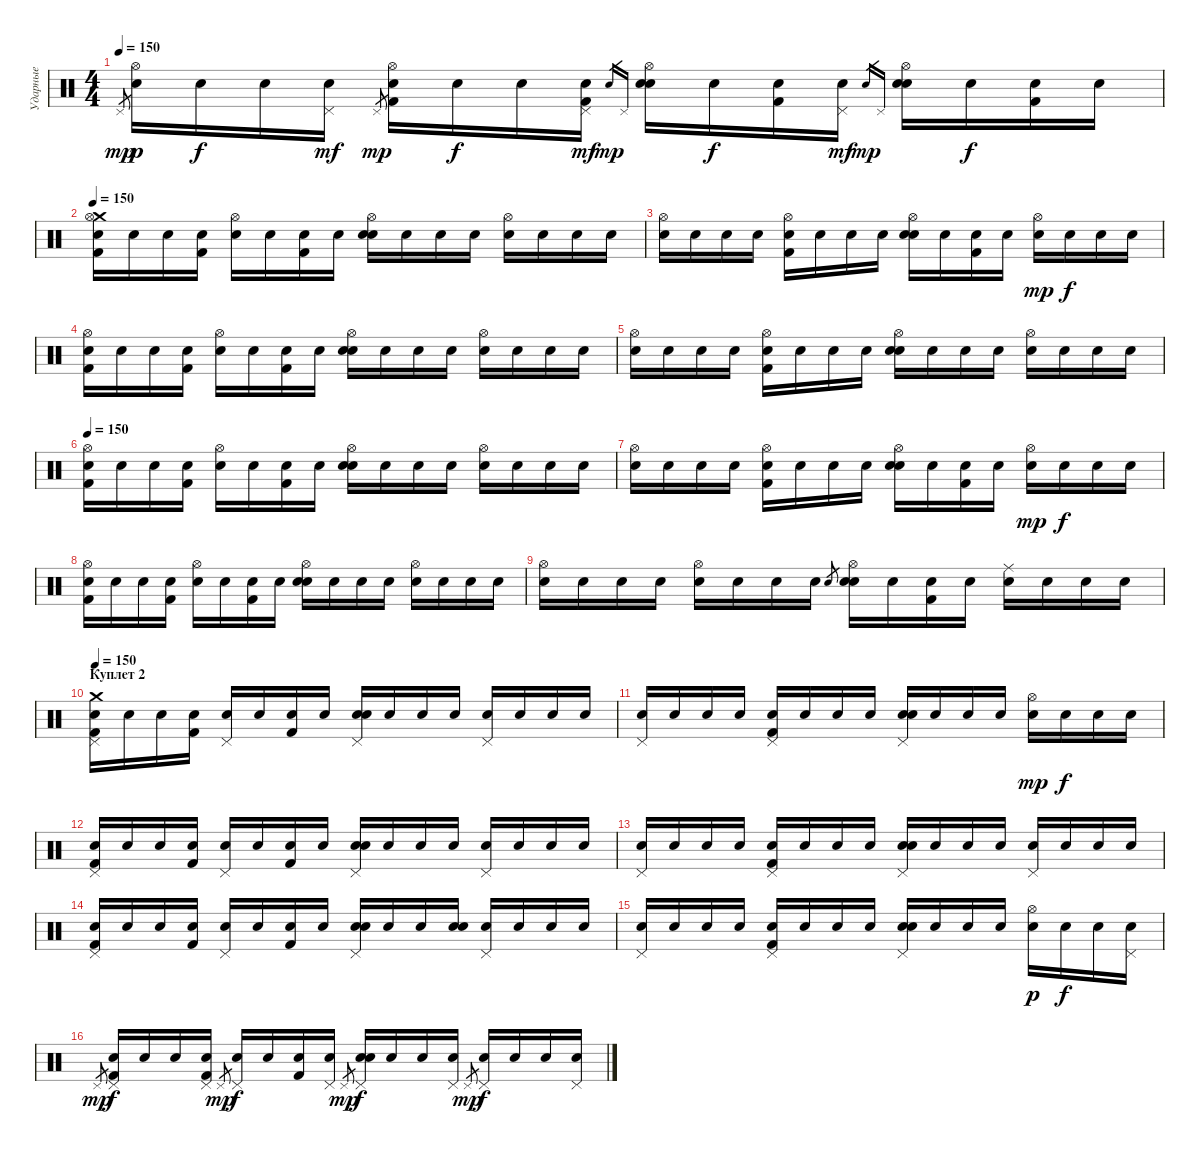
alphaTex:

\track ("Ударные" "Ударные") {instrument percussion}
\staff {score}
\articulation defaults
\ts (4 4)
\tempo 150
\clef neutral
\ks c "Pedal Hi-Hat (hit)".8{gr dy mp}
("Hi-Hat (open)" "Snare (hit)"{x}).16{dy p} "Snare (hit)"{x}.16{dy f} "Snare (hit)"{x}.16 ("Pedal Hi-Hat (hit)" "Snare (hit)"{x}).16{dy mf} "Pedal Hi-Hat (hit)".8{gr dy mp} ("Kick (hit) 2" "Hi-Hat (open)" "Snare (hit)"{x}).16 "Snare (hit)"{x}.16{dy f} "Snare (hit)"{x}.16 ("Kick (hit) 2" "Pedal Hi-Hat (hit)" "Snare (hit)"{x}).16{dy mf} "Snare (hit) 2".16{gr dy mp} "Pedal Hi-Hat (hit)".16{gr} ("Snare (hit) 2" "Hi-Hat (open)" "Snare (hit)"{x}).16 "Snare (hit)"{x}.16{dy f} ("Kick (hit) 2" "Snare (hit)"{x}).16 ("Pedal Hi-Hat (hit)" "Snare (hit)"{x}).16{dy mf} "Snare (hit) 2".16{gr dy mp} "Pedal Hi-Hat (hit)".16{gr} ("Snare (hit) 2" "Hi-Hat (open)" "Snare (hit)"{x}).16 "Snare (hit)"{x}.16{dy f} ("Kick (hit) 2" "Snare (hit)"{x}).16 "Snare (hit)"{x}.16 |
\tempo 150
("Crash medium (hit)" "Kick (hit) 2" "Hi-Hat (open)" "Snare (hit)"{x}).16 "Snare (hit)"{x}.16 "Snare (hit)"{x}.16 ("Kick (hit) 2" "Snare (hit)"{x}).16 ("Hi-Hat (open)" "Snare (hit)"{x}).16 "Snare (hit)"{x}.16 ("Kick (hit) 2" "Snare (hit)"{x}).16 "Snare (hit)"{x}.16 ("Snare (hit) 2" "Hi-Hat (open)" "Snare (hit)"{x}).16 "Snare (hit)"{x}.16 "Snare (hit)"{x}.16 "Snare (hit)"{x}.16 ("Hi-Hat (open)" "Snare (hit)"{x}).16 "Snare (hit)"{x}.16 "Snare (hit)"{x}.16 "Snare (hit)"{x}.16 |
("Hi-Hat (open)" "Snare (hit)"{x}).16 "Snare (hit)"{x}.16 "Snare (hit)"{x}.16 "Snare (hit)"{x}.16 ("Kick (hit) 2" "Hi-Hat (open)" "Snare (hit)"{x}).16 "Snare (hit)"{x}.16 "Snare (hit)"{x}.16 "Snare (hit)"{x}.16 ("Snare (hit) 2" "Hi-Hat (open)" "Snare (hit)"{x}).16 "Snare (hit)"{x}.16 ("Kick (hit) 2" "Snare (hit)"{x}).16 "Snare (hit)"{x}.16 ("Hi-Hat (open)" "Snare (hit)"{x}).16{dy mp} "Snare (hit)"{x}.16{dy f} "Snare (hit)"{x}.16 "Snare (hit)"{x}.16 |
("Kick (hit) 2" "Hi-Hat (open)" "Snare (hit)"{x}).16 "Snare (hit)"{x}.16 "Snare (hit)"{x}.16 ("Kick (hit) 2" "Snare (hit)"{x}).16 ("Hi-Hat (open)" "Snare (hit)"{x}).16 "Snare (hit)"{x}.16 ("Kick (hit) 2" "Snare (hit)"{x}).16 "Snare (hit)"{x}.16 ("Snare (hit) 2" "Hi-Hat (open)" "Snare (hit)"{x}).16 "Snare (hit)"{x}.16 "Snare (hit)"{x}.16 "Snare (hit)"{x}.16 ("Hi-Hat (open)" "Snare (hit)"{x}).16 "Snare (hit)"{x}.16 "Snare (hit)"{x}.16 "Snare (hit)"{x}.16 |
("Hi-Hat (open)" "Snare (hit)"{x}).16 "Snare (hit)"{x}.16 "Snare (hit)"{x}.16 "Snare (hit)"{x}.16 ("Kick (hit) 2" "Hi-Hat (open)" "Snare (hit)"{x}).16 "Snare (hit)"{x}.16 "Snare (hit)"{x}.16 "Snare (hit)"{x}.16 ("Snare (hit) 2" "Hi-Hat (open)" "Snare (hit)"{x}).16 "Snare (hit)"{x}.16 "Snare (hit)"{x}.16 "Snare (hit)"{x}.16 ("Hi-Hat (open)" "Snare (hit)"{x}).16 "Snare (hit)"{x}.16 "Snare (hit)"{x}.16 "Snare (hit)"{x}.16 |
\tempo 150
("Kick (hit) 2" "Hi-Hat (open)" "Snare (hit)"{x}).16 "Snare (hit)"{x}.16 "Snare (hit)"{x}.16 ("Kick (hit) 2" "Snare (hit)"{x}).16 ("Hi-Hat (open)" "Snare (hit)"{x}).16 "Snare (hit)"{x}.16 ("Kick (hit) 2" "Snare (hit)"{x}).16 "Snare (hit)"{x}.16 ("Snare (hit) 2" "Hi-Hat (open)" "Snare (hit)"{x}).16 "Snare (hit)"{x}.16 "Snare (hit)"{x}.16 "Snare (hit)"{x}.16 ("Hi-Hat (open)" "Snare (hit)"{x}).16 "Snare (hit)"{x}.16 "Snare (hit)"{x}.16 "Snare (hit)"{x}.16 |
("Hi-Hat (open)" "Snare (hit)"{x}).16 "Snare (hit)"{x}.16 "Snare (hit)"{x}.16 "Snare (hit)"{x}.16 ("Kick (hit) 2" "Hi-Hat (open)" "Snare (hit)"{x}).16 "Snare (hit)"{x}.16 "Snare (hit)"{x}.16 "Snare (hit)"{x}.16 ("Snare (hit) 2" "Hi-Hat (open)" "Snare (hit)"{x}).16 "Snare (hit)"{x}.16 ("Kick (hit) 2" "Snare (hit)"{x}).16 "Snare (hit)"{x}.16 ("Hi-Hat (open)" "Snare (hit)"{x}).16{dy mp} "Snare (hit)"{x}.16{dy f} "Snare (hit)"{x}.16 "Snare (hit)"{x}.16 |
("Kick (hit) 2" "Hi-Hat (open)" "Snare (hit)"{x}).16 "Snare (hit)"{x}.16 "Snare (hit)"{x}.16 ("Kick (hit) 2" "Snare (hit)"{x}).16 ("Hi-Hat (open)" "Snare (hit)"{x}).16 "Snare (hit)"{x}.16 ("Kick (hit) 2" "Snare (hit)"{x}).16 "Snare (hit)"{x}.16 ("Snare (hit) 2" "Hi-Hat (open)" "Snare (hit)"{x}).16 "Snare (hit)"{x}.16 "Snare (hit)"{x}.16 "Snare (hit)"{x}.16 ("Hi-Hat (open)" "Snare (hit)"{x}).16 "Snare (hit)"{x}.16 "Snare (hit)"{x}.16 "Snare (hit)"{x}.16 |
("Hi-Hat (open)" "Snare (hit)"{x}).16 "Snare (hit)"{x}.16 "Snare (hit)"{x}.16 "Snare (hit)"{x}.16 ("Hi-Hat (open)" "Snare (hit)"{x}).16 "Snare (hit)"{x}.16 "Snare (hit)"{x}.16 "Snare (hit)"{x}.16 "Snare (hit) 2".8{gr} ("Snare (hit) 2" "Hi-Hat (open)" "Snare (hit)"{x}).16 "Snare (hit)"{x}.16 ("Kick (hit) 2" "Snare (hit)"{x}).16 "Snare (hit)"{x}.16 ("Ride (middle)" "Snare (hit)"{x}).16 "Snare (hit)"{x}.16 "Snare (hit)"{x}.16 "Snare (hit)"{x}.16 |
\section ("" "Куплет 2")
\tempo 150
("Crash medium (hit)" "Kick (hit) 2" "Pedal Hi-Hat (hit)" "Snare (hit)"{x}).16 "Snare (hit)"{x}.16 "Snare (hit)"{x}.16 ("Kick (hit) 2" "Snare (hit)"{x}).16 ("Pedal Hi-Hat (hit)" "Snare (hit)"{x}).16 "Snare (hit)"{x}.16 ("Kick (hit) 2" "Snare (hit)"{x}).16 "Snare (hit)"{x}.16 ("Snare (hit) 2" "Pedal Hi-Hat (hit)" "Snare (hit)"{x}).16 "Snare (hit)"{x}.16 "Snare (hit)"{x}.16 "Snare (hit)"{x}.16 ("Pedal Hi-Hat (hit)" "Snare (hit)"{x}).16 "Snare (hit)"{x}.16 "Snare (hit)"{x}.16 "Snare (hit)"{x}.16 |
("Pedal Hi-Hat (hit)" "Snare (hit)"{x}).16 "Snare (hit)"{x}.16 "Snare (hit)"{x}.16 "Snare (hit)"{x}.16 ("Kick (hit) 2" "Pedal Hi-Hat (hit)" "Snare (hit)"{x}).16 "Snare (hit)"{x}.16 "Snare (hit)"{x}.16 "Snare (hit)"{x}.16 ("Snare (hit) 2" "Pedal Hi-Hat (hit)" "Snare (hit)"{x}).16 "Snare (hit)"{x}.16 "Snare (hit)"{x}.16 "Snare (hit)"{x}.16 ("Hi-Hat (open)" "Snare (hit)"{x}).16{dy mp} "Snare (hit)"{x}.16{dy f} "Snare (hit)"{x}.16 "Snare (hit)"{x}.16 |
("Kick (hit) 2" "Pedal Hi-Hat (hit)" "Snare (hit)"{x}).16 "Snare (hit)"{x}.16 "Snare (hit)"{x}.16 ("Kick (hit) 2" "Snare (hit)"{x}).16 ("Pedal Hi-Hat (hit)" "Snare (hit)"{x}).16 "Snare (hit)"{x}.16 ("Kick (hit) 2" "Snare (hit)"{x}).16 "Snare (hit)"{x}.16 ("Snare (hit) 2" "Pedal Hi-Hat (hit)" "Snare (hit)"{x}).16 "Snare (hit)"{x}.16 "Snare (hit)"{x}.16 "Snare (hit)"{x}.16 ("Pedal Hi-Hat (hit)" "Snare (hit)"{x}).16 "Snare (hit)"{x}.16 "Snare (hit)"{x}.16 "Snare (hit)"{x}.16 |
("Pedal Hi-Hat (hit)" "Snare (hit)"{x}).16 "Snare (hit)"{x}.16 "Snare (hit)"{x}.16 "Snare (hit)"{x}.16 ("Kick (hit) 2" "Pedal Hi-Hat (hit)" "Snare (hit)"{x}).16 "Snare (hit)"{x}.16 "Snare (hit)"{x}.16 "Snare (hit)"{x}.16 ("Snare (hit) 2" "Pedal Hi-Hat (hit)" "Snare (hit)"{x}).16 "Snare (hit)"{x}.16 "Snare (hit)"{x}.16 "Snare (hit)"{x}.16 ("Pedal Hi-Hat (hit)" "Snare (hit)"{x}).16 "Snare (hit)"{x}.16 "Snare (hit)"{x}.16 "Snare (hit)"{x}.16 |
("Kick (hit) 2" "Pedal Hi-Hat (hit)" "Snare (hit)"{x}).16 "Snare (hit)"{x}.16 "Snare (hit)"{x}.16 ("Kick (hit) 2" "Snare (hit)"{x}).16 ("Pedal Hi-Hat (hit)" "Snare (hit)"{x}).16 "Snare (hit)"{x}.16 ("Kick (hit) 2" "Snare (hit)"{x}).16 "Snare (hit)"{x}.16 ("Snare (hit) 2" "Pedal Hi-Hat (hit)" "Snare (hit)"{x}).16 "Snare (hit)"{x}.16 "Snare (hit)"{x}.16 ("Snare (hit) 2" "Snare (hit)"{x}).16 ("Pedal Hi-Hat (hit)" "Snare (hit)"{x}).16 "Snare (hit)"{x}.16 "Snare (hit)"{x}.16 "Snare (hit)"{x}.16 |
("Pedal Hi-Hat (hit)" "Snare (hit)"{x}).16 "Snare (hit)"{x}.16 "Snare (hit)"{x}.16 "Snare (hit)"{x}.16 ("Kick (hit) 2" "Pedal Hi-Hat (hit)" "Snare (hit)"{x}).16 "Snare (hit)"{x}.16 "Snare (hit)"{x}.16 "Snare (hit)"{x}.16 ("Snare (hit) 2" "Pedal Hi-Hat (hit)" "Snare (hit)"{x}).16 "Snare (hit)"{x}.16 "Snare (hit)"{x}.16 "Snare (hit)"{x}.16 ("Hi-Hat (open)" "Snare (hit)"{x}).16{dy p} "Snare (hit)"{x}.16{dy f} "Snare (hit)"{x}.16 ("Pedal Hi-Hat (hit)" "Snare (hit)"{x}).16 |
"Pedal Hi-Hat (hit)".8{gr dy mp} ("Kick (hit) 2" "Pedal Hi-Hat (hit)" "Snare (hit)"{x}).16{dy f} "Snare (hit)"{x}.16 "Snare (hit)"{x}.16 ("Kick (hit) 2" "Pedal Hi-Hat (hit)" "Snare (hit)"{x}).16 "Pedal Hi-Hat (hit)".8{gr dy mp} ("Pedal Hi-Hat (hit)" "Snare (hit)"{x}).16{dy f} "Snare (hit)"{x}.16 ("Kick (hit) 2" "Snare (hit)"{x}).16 ("Pedal Hi-Hat (hit)" "Snare (hit)"{x}).16 "Pedal Hi-Hat (hit)".8{gr dy mp} ("Snare (hit) 2" "Pedal Hi-Hat (hit)" "Snare (hit)"{x}).16{dy f} "Snare (hit)"{x}.16 "Snare (hit)"{x}.16 ("Pedal Hi-Hat (hit)" "Snare (hit)"{x}).16 "Pedal Hi-Hat (hit)".8{gr dy mp} ("Pedal Hi-Hat (hit)" "Snare (hit)"{x}).16{dy f} "Snare (hit)"{x}.16 "Snare (hit)"{x}.16 ("Pedal Hi-Hat (hit)" "Snare (hit)"{x}).16
